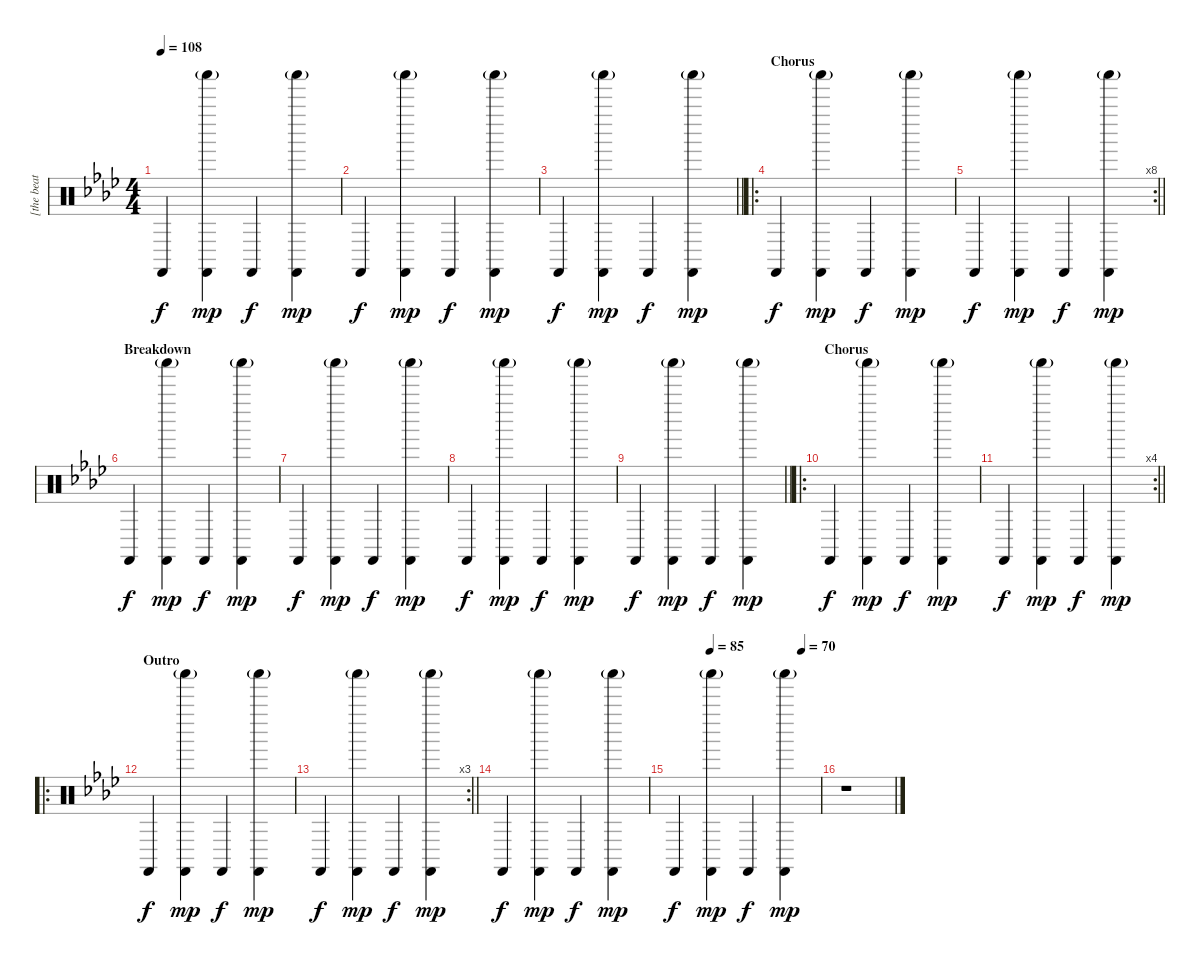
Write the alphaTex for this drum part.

\track (" [the beat]" " [the beat") {instrument percussion}
\staff {score}
\articulation defaults
\ts (4 4)
\tempo 108
\clef neutral
\ks fminor "Castanets (hit)".4{dy f}
("Castanets (hit)" "Shaker (hit)"{g}).4{dy mp} "Castanets (hit)".4{dy f} ("Castanets (hit)" "Shaker (hit)"{g}).4{dy mp} |
"Castanets (hit)".4{dy f} ("Castanets (hit)" "Shaker (hit)"{g}).4{dy mp} "Castanets (hit)".4{dy f} ("Castanets (hit)" "Shaker (hit)"{g}).4{dy mp} |
\barLineRight lightlight "Castanets (hit)".4{dy f}
("Castanets (hit)" "Shaker (hit)"{g}).4{dy mp} "Castanets (hit)".4{dy f} ("Castanets (hit)" "Shaker (hit)"{g}).4{dy mp} |
\ro
\section ("" "Chorus")
"Castanets (hit)".4{dy f} ("Castanets (hit)" "Shaker (hit)"{g}).4{dy mp} "Castanets (hit)".4{dy f} ("Castanets (hit)" "Shaker (hit)"{g}).4{dy mp} |
\rc 8
\barLineRight lightlight "Castanets (hit)".4{dy f}
("Castanets (hit)" "Shaker (hit)"{g}).4{dy mp} "Castanets (hit)".4{dy f} ("Castanets (hit)" "Shaker (hit)"{g}).4{dy mp} |
\section ("" "Breakdown")
"Castanets (hit)".4{dy f} ("Castanets (hit)" "Shaker (hit)"{g}).4{dy mp} "Castanets (hit)".4{dy f} ("Castanets (hit)" "Shaker (hit)"{g}).4{dy mp} |
"Castanets (hit)".4{dy f} ("Castanets (hit)" "Shaker (hit)"{g}).4{dy mp} "Castanets (hit)".4{dy f} ("Castanets (hit)" "Shaker (hit)"{g}).4{dy mp} |
"Castanets (hit)".4{dy f} ("Castanets (hit)" "Shaker (hit)"{g}).4{dy mp} "Castanets (hit)".4{dy f} ("Castanets (hit)" "Shaker (hit)"{g}).4{dy mp} |
\barLineRight lightlight "Castanets (hit)".4{dy f}
("Castanets (hit)" "Shaker (hit)"{g}).4{dy mp} "Castanets (hit)".4{dy f} ("Castanets (hit)" "Shaker (hit)"{g}).4{dy mp} |
\ro
\section ("" "Chorus")
"Castanets (hit)".4{dy f} ("Castanets (hit)" "Shaker (hit)"{g}).4{dy mp} "Castanets (hit)".4{dy f} ("Castanets (hit)" "Shaker (hit)"{g}).4{dy mp} |
\rc 4
\barLineRight lightlight "Castanets (hit)".4{dy f}
("Castanets (hit)" "Shaker (hit)"{g}).4{dy mp} "Castanets (hit)".4{dy f} ("Castanets (hit)" "Shaker (hit)"{g}).4{dy mp} |
\ro
\section ("" "Outro")
"Castanets (hit)".4{dy f} ("Castanets (hit)" "Shaker (hit)"{g}).4{dy mp} "Castanets (hit)".4{dy f} ("Castanets (hit)" "Shaker (hit)"{g}).4{dy mp} |
\rc 3
\barLineRight lightlight "Castanets (hit)".4{dy f}
("Castanets (hit)" "Shaker (hit)"{g}).4{dy mp} "Castanets (hit)".4{dy f} ("Castanets (hit)" "Shaker (hit)"{g}).4{dy mp} |
"Castanets (hit)".4{dy f} ("Castanets (hit)" "Shaker (hit)"{g}).4{dy mp} "Castanets (hit)".4{dy f} ("Castanets (hit)" "Shaker (hit)"{g}).4{dy mp} |
\tempo (85 0.25)
\tempo (70 0.875)
"Castanets (hit)".4{dy f} ("Castanets (hit)" "Shaker (hit)"{g}).4{dy mp} "Castanets (hit)".4{dy f} ("Castanets (hit)" "Shaker (hit)"{g}).4{dy mp} |
r.1
